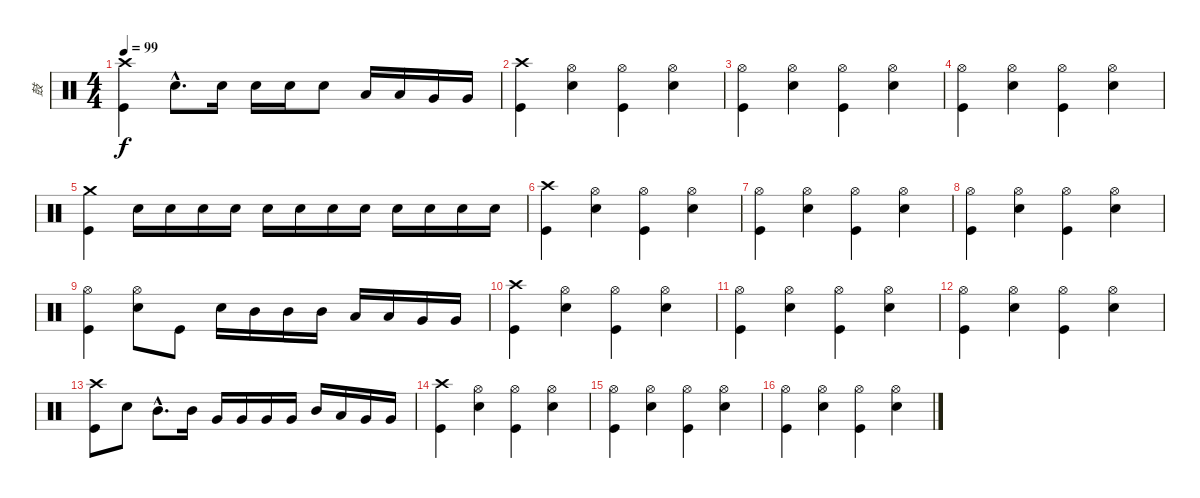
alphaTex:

\track ("鼓" "鼓") {instrument percussion}
\staff {score}
\articulation defaults
\ts (4 4)
\tempo 99
\clef neutral
\ks c
("Crash high (hit)" "Kick (hit)").4{dy f} "Snare (hit) 2"{hac}.8{d} "Snare (hit) 2".16 "Snare (hit) 2".16 "Snare (hit) 2".16 "Snare (hit) 2".8 "Low Tom (hit)".16 "Low Tom (hit)".16 "Very Low Tom (hit)".16 "Very Low Tom (hit)".16 |
("Crash high (hit)" "Kick (hit)").4 ("Hi-Hat (open)" "Snare (hit) 2").4 ("Hi-Hat (open)" "Kick (hit)").4 ("Hi-Hat (open)" "Snare (hit) 2").4 |
("Hi-Hat (open)" "Kick (hit)").4 ("Hi-Hat (open)" "Snare (hit) 2").4 ("Hi-Hat (open)" "Kick (hit)").4 ("Hi-Hat (open)" "Snare (hit) 2").4 |
("Hi-Hat (open)" "Kick (hit)").4 ("Hi-Hat (open)" "Snare (hit) 2").4 ("Hi-Hat (open)" "Kick (hit)").4 ("Hi-Hat (open)" "Snare (hit) 2").4 |
("Crash medium (hit)" "Kick (hit)").4 "Snare (hit) 2".16 "Snare (hit) 2".16 "Snare (hit) 2".16 "Snare (hit) 2".16 "Snare (hit) 2".16 "Snare (hit) 2".16 "Snare (hit) 2".16 "Snare (hit) 2".16 "Snare (hit) 2".16 "Snare (hit) 2".16 "Snare (hit) 2".16 "Snare (hit) 2".16 |
("Crash high (hit)" "Kick (hit)").4 ("Hi-Hat (open)" "Snare (hit) 2").4 ("Hi-Hat (open)" "Kick (hit)").4 ("Hi-Hat (open)" "Snare (hit) 2").4 |
("Hi-Hat (open)" "Kick (hit)").4 ("Hi-Hat (open)" "Snare (hit) 2").4 ("Hi-Hat (open)" "Kick (hit)").4 ("Hi-Hat (open)" "Snare (hit) 2").4 |
("Hi-Hat (open)" "Kick (hit)").4 ("Hi-Hat (open)" "Snare (hit) 2").4 ("Hi-Hat (open)" "Kick (hit)").4 ("Hi-Hat (open)" "Snare (hit) 2").4 |
("Hi-Hat (open)" "Kick (hit)").4 ("Hi-Hat (open)" "Snare (hit) 2").8 "Kick (hit)".8 "Snare (hit) 2".16 "Mid Tom (hit)".16 "Mid Tom (hit)".16 "Mid Tom (hit)".16 "Low Tom (hit)".16 "Low Tom (hit)".16 "Very Low Tom (hit)".16 "Very Low Tom (hit)".16 |
("Crash high (hit)" "Kick (hit)").4 ("Hi-Hat (open)" "Snare (hit) 2").4 ("Hi-Hat (open)" "Kick (hit)").4 ("Hi-Hat (open)" "Snare (hit) 2").4 |
("Hi-Hat (open)" "Kick (hit)").4 ("Hi-Hat (open)" "Snare (hit) 2").4 ("Hi-Hat (open)" "Kick (hit)").4 ("Hi-Hat (open)" "Snare (hit) 2").4 |
("Hi-Hat (open)" "Kick (hit)").4 ("Hi-Hat (open)" "Snare (hit) 2").4 ("Hi-Hat (open)" "Kick (hit)").4 ("Hi-Hat (open)" "Snare (hit) 2").4 |
("Crash high (hit)" "Kick (hit)").8 "Snare (hit) 2".8 "Mid Tom (hit)"{hac}.8{d} "Mid Tom (hit)".16 "Very Low Tom (hit)".16 "Very Low Tom (hit)".16 "Very Low Tom (hit)".16 "Very Low Tom (hit)".16 "Mid Tom (hit)".16 "Low Tom (hit)".16 "Very Low Tom (hit)".16 "Very Low Tom (hit)".16 |
("Crash high (hit)" "Kick (hit)").4 ("Hi-Hat (open)" "Snare (hit) 2").4 ("Hi-Hat (open)" "Kick (hit)").4 ("Hi-Hat (open)" "Snare (hit) 2").4 |
("Hi-Hat (open)" "Kick (hit)").4 ("Hi-Hat (open)" "Snare (hit) 2").4 ("Hi-Hat (open)" "Kick (hit)").4 ("Hi-Hat (open)" "Snare (hit) 2").4 |
("Hi-Hat (open)" "Kick (hit)").4 ("Hi-Hat (open)" "Snare (hit) 2").4 ("Hi-Hat (open)" "Kick (hit)").4 ("Hi-Hat (open)" "Snare (hit) 2").4
